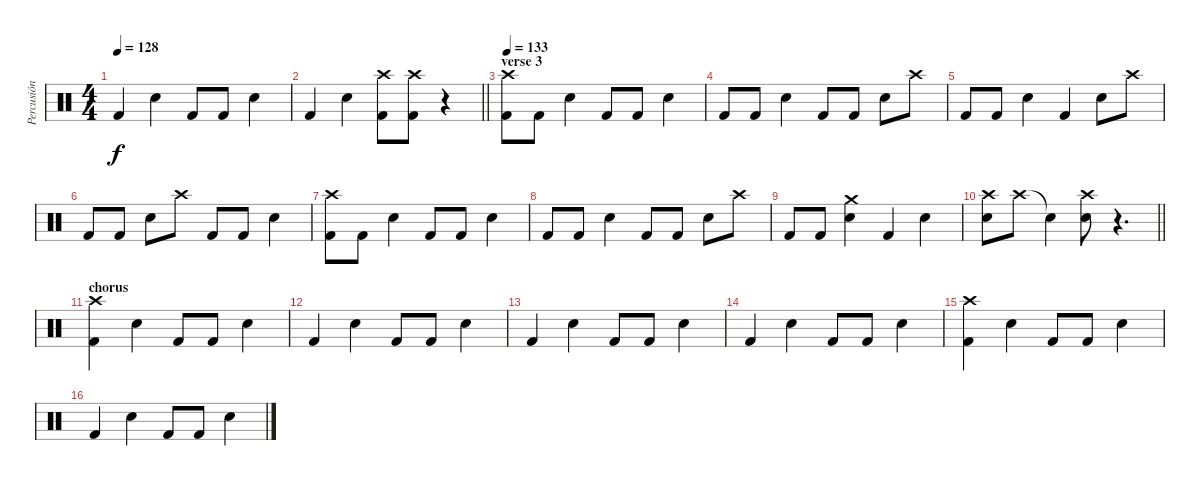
\track ("Percusión" "Percusión") {instrument percussion}
\staff {score}
\articulation defaults
\ts (4 4)
\tempo 128
\clef neutral
\ks c "Kick (hit) 2".4{dy f} "Electric Snare (hit)".4 "Kick (hit) 2".8 "Kick (hit) 2".8 "Electric Snare (hit)".4
|
\barLineRight lightlight "Kick (hit) 2".4 "Electric Snare (hit)".4
("Crash high (hit)" "Kick (hit) 2").8 ("Crash high (hit)" "Kick (hit) 2").8 r.4 |
\section ("" "verse 3")
\tempo 133
("Crash high (hit)" "Kick (hit) 2").8 "Kick (hit) 2".8 "Electric Snare (hit)".4 "Kick (hit) 2".8 "Kick (hit) 2".8 "Electric Snare (hit)".4 |
"Kick (hit) 2".8 "Kick (hit) 2".8 "Electric Snare (hit)".4 "Kick (hit) 2".8 "Kick (hit) 2".8 "Electric Snare (hit)".8 "Crash high (hit)".8 |
"Kick (hit) 2".8 "Kick (hit) 2".8 "Electric Snare (hit)".4 "Kick (hit) 2".4 "Electric Snare (hit)".8 "Crash high (hit)".8 |
"Kick (hit) 2".8 "Kick (hit) 2".8 "Electric Snare (hit)".8 "Crash high (hit)".8 "Kick (hit) 2".8 "Kick (hit) 2".8 "Electric Snare (hit)".4 |
("Crash high (hit)" "Kick (hit) 2").8 "Kick (hit) 2".8 "Electric Snare (hit)".4 "Kick (hit) 2".8 "Kick (hit) 2".8 "Electric Snare (hit)".4 |
"Kick (hit) 2".8 "Kick (hit) 2".8 "Electric Snare (hit)".4 "Kick (hit) 2".8 "Kick (hit) 2".8 "Electric Snare (hit)".8 "Crash high (hit)".8 |
"Kick (hit) 2".8 "Kick (hit) 2".8 ("Crash medium (hit)" "Electric Snare (hit)").4 "Kick (hit) 2".4 "Electric Snare (hit)".4 |
\barLineRight lightlight
("Crash high (hit)" "Electric Snare (hit)").8 "Crash high (hit)".8 "Snare (hit)"{t}.4 ("Crash high (hit)" "Electric Snare (hit)").8 r.4{d} |
\section ("" "chorus")
("Crash high (hit)" "Kick (hit) 2").4 "Electric Snare (hit)".4 "Kick (hit) 2".8 "Kick (hit) 2".8 "Electric Snare (hit)".4 |
"Kick (hit) 2".4 "Electric Snare (hit)".4 "Kick (hit) 2".8 "Kick (hit) 2".8 "Electric Snare (hit)".4 |
"Kick (hit) 2".4 "Electric Snare (hit)".4 "Kick (hit) 2".8 "Kick (hit) 2".8 "Electric Snare (hit)".4 |
"Kick (hit) 2".4 "Electric Snare (hit)".4 "Kick (hit) 2".8 "Kick (hit) 2".8 "Electric Snare (hit)".4 |
("Crash high (hit)" "Kick (hit) 2").4 "Electric Snare (hit)".4 "Kick (hit) 2".8 "Kick (hit) 2".8 "Electric Snare (hit)".4 |
"Kick (hit) 2".4 "Electric Snare (hit)".4 "Kick (hit) 2".8 "Kick (hit) 2".8 "Electric Snare (hit)".4
